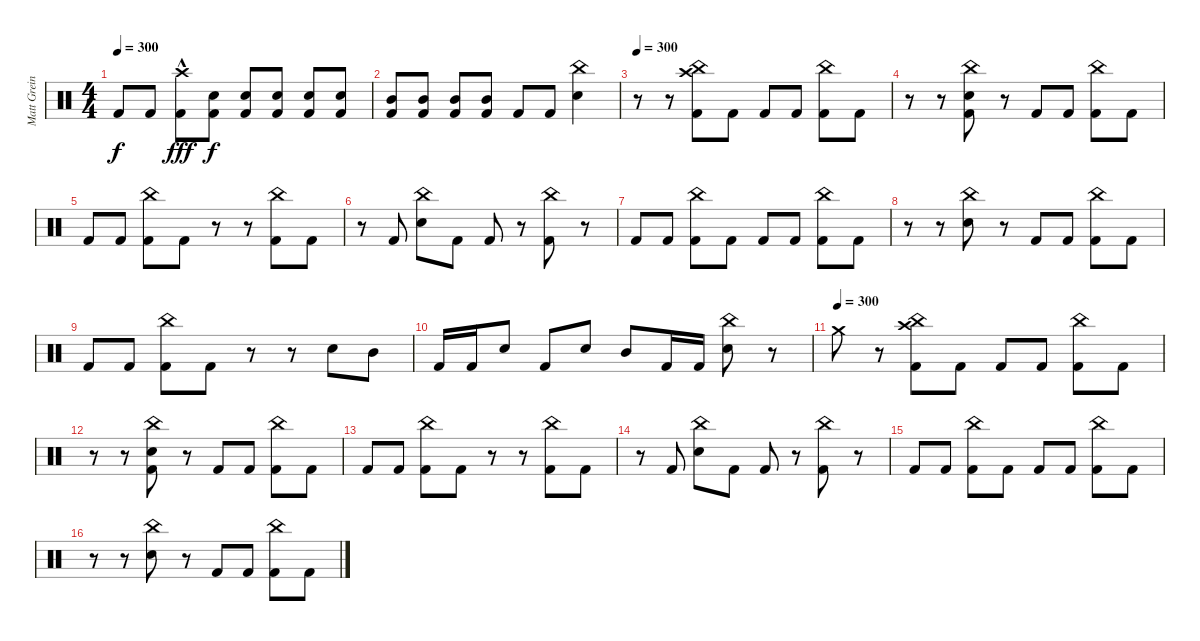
\track ("Matt Greiner (Drums)" "Matt Grein") {instrument percussion}
\staff {score}
\articulation defaults
\ts (4 4)
\tempo 300
\clef neutral
\ks c "Kick (hit) 2".8{dy f} "Kick (hit) 2".8
("Crash high (hit)"{hac} "Kick (hit) 2").8{dy fff} ("Electric Snare (hit)" "Kick (hit) 2").8{dy f} ("Electric Snare (hit)" "Kick (hit) 2").8 ("Electric Snare (hit)" "Kick (hit) 2").8 ("Electric Snare (hit)" "Kick (hit) 2").8 ("Electric Snare (hit)" "Kick (hit) 2").8 |
("Mid Tom (hit)" "Kick (hit) 2").8 ("Mid Tom (hit)" "Kick (hit) 2").8 ("Mid Tom (hit)" "Kick (hit) 2").8 ("Mid Tom (hit)" "Kick (hit) 2").8 "Kick (hit) 2".8 "Kick (hit) 2".8 ("China (hit)" "Electric Snare (hit)").4 |
\tempo 300
r.8 r.8 ("Crash high (hit)" "China (hit)" "Kick (hit) 2").8 "Kick (hit) 2".8 "Kick (hit) 2".8 "Kick (hit) 2".8 ("China (hit)" "Kick (hit) 2").8 "Kick (hit) 2".8 |
r.8 r.8 ("China (hit)" "Electric Snare (hit)" "Kick (hit) 2").8 r.8 "Kick (hit) 2".8 "Kick (hit) 2".8 ("China (hit)" "Kick (hit) 2").8 "Kick (hit) 2".8 |
"Kick (hit) 2".8 "Kick (hit) 2".8 ("China (hit)" "Kick (hit) 2").8 "Kick (hit) 2".8 r.8 r.8 ("China (hit)" "Kick (hit) 2").8 "Kick (hit) 2".8 |
r.8 "Kick (hit) 2".8 ("China (hit)" "Electric Snare (hit)").8 "Kick (hit) 2".8 "Kick (hit) 2".8 r.8 ("China (hit)" "Kick (hit) 2").8 r.8 |
"Kick (hit) 2".8 "Kick (hit) 2".8 ("China (hit)" "Kick (hit) 2").8 "Kick (hit) 2".8 "Kick (hit) 2".8 "Kick (hit) 2".8 ("China (hit)" "Kick (hit) 2").8 "Kick (hit) 2".8 |
r.8 r.8 ("China (hit)" "Electric Snare (hit)").8 r.8 "Kick (hit) 2".8 "Kick (hit) 2".8 ("China (hit)" "Kick (hit) 2").8 "Kick (hit) 2".8 |
"Kick (hit) 2".8 "Kick (hit) 2".8 ("China (hit)" "Kick (hit) 2").8 "Kick (hit) 2".8 r.8 r.8 "Electric Snare (hit)".8 "Mid Tom (hit)".8 |
"Kick (hit) 2".16 "Kick (hit) 2".16 "Electric Snare (hit)".8 "Kick (hit) 2".8 "Electric Snare (hit)".8 "Mid Tom (hit)".8 "Kick (hit) 2".16 "Kick (hit) 2".16 ("China (hit)" "Electric Snare (hit)").8 r.8 |
\tempo (300)
"Crash medium (hit)".8 r.8 ("Crash high (hit)" "China (hit)" "Kick (hit) 2").8 "Kick (hit) 2".8 "Kick (hit) 2".8 "Kick (hit) 2".8 ("China (hit)" "Kick (hit) 2").8 "Kick (hit) 2".8 |
r.8 r.8 ("China (hit)" "Electric Snare (hit)" "Kick (hit) 2").8 r.8 "Kick (hit) 2".8 "Kick (hit) 2".8 ("China (hit)" "Kick (hit) 2").8 "Kick (hit) 2".8 |
"Kick (hit) 2".8 "Kick (hit) 2".8 ("China (hit)" "Kick (hit) 2").8 "Kick (hit) 2".8 r.8 r.8 ("China (hit)" "Kick (hit) 2").8 "Kick (hit) 2".8 |
r.8 "Kick (hit) 2".8 ("China (hit)" "Electric Snare (hit)").8 "Kick (hit) 2".8 "Kick (hit) 2".8 r.8 ("China (hit)" "Kick (hit) 2").8 r.8 |
"Kick (hit) 2".8 "Kick (hit) 2".8 ("China (hit)" "Kick (hit) 2").8 "Kick (hit) 2".8 "Kick (hit) 2".8 "Kick (hit) 2".8 ("China (hit)" "Kick (hit) 2").8 "Kick (hit) 2".8 |
r.8 r.8 ("China (hit)" "Electric Snare (hit)").8 r.8 "Kick (hit) 2".8 "Kick (hit) 2".8 ("China (hit)" "Kick (hit) 2").8 "Kick (hit) 2".8
